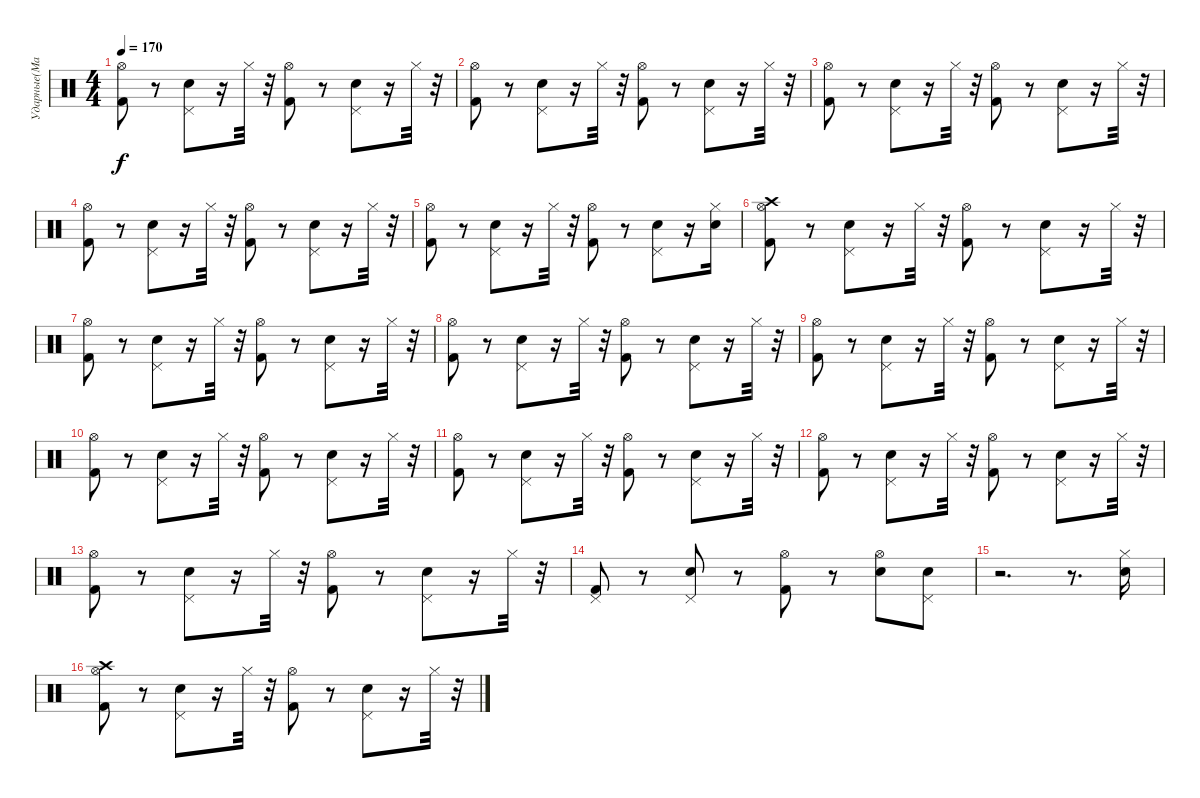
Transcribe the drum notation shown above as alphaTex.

\track ("Ударные(Май)" "Ударные(Ма") {instrument percussion}
\staff {score}
\articulation defaults
\ts (4 4)
\tempo 170
\clef neutral
\ks c
("Hi-Hat (open)" "Kick (hit) 2").8{dy f} r.8 ("Electric Snare (hit)" "Pedal Hi-Hat (hit)").8 r.16 "Hi-Hat (closed)".32 r.32 ("Kick (hit) 2" "Hi-Hat (open)").8 r.8 ("Electric Snare (hit)" "Pedal Hi-Hat (hit)").8 r.16 "Hi-Hat (closed)".32 r.32 |
("Hi-Hat (open)" "Kick (hit) 2").8 r.8 ("Electric Snare (hit)" "Pedal Hi-Hat (hit)").8 r.16 "Hi-Hat (closed)".32 r.32 ("Kick (hit) 2" "Hi-Hat (open)").8 r.8 ("Electric Snare (hit)" "Pedal Hi-Hat (hit)").8 r.16 "Hi-Hat (closed)".32 r.32 |
("Hi-Hat (open)" "Kick (hit) 2").8 r.8 ("Electric Snare (hit)" "Pedal Hi-Hat (hit)").8 r.16 "Hi-Hat (closed)".32 r.32 ("Kick (hit) 2" "Hi-Hat (open)").8 r.8 ("Electric Snare (hit)" "Pedal Hi-Hat (hit)").8 r.16 "Hi-Hat (closed)".32 r.32 |
("Hi-Hat (open)" "Kick (hit) 2").8 r.8 ("Electric Snare (hit)" "Pedal Hi-Hat (hit)").8 r.16 "Hi-Hat (closed)".32 r.32 ("Kick (hit) 2" "Hi-Hat (open)").8 r.8 ("Electric Snare (hit)" "Pedal Hi-Hat (hit)").8 r.16 "Hi-Hat (closed)".32 r.32 |
("Hi-Hat (open)" "Kick (hit) 2").8 r.8 ("Electric Snare (hit)" "Pedal Hi-Hat (hit)").8 r.16 "Hi-Hat (closed)".32 r.32 ("Kick (hit) 2" "Hi-Hat (open)").8 r.8 ("Electric Snare (hit)" "Pedal Hi-Hat (hit)").8 r.16 ("Hi-Hat (closed)" "Electric Snare (hit)").16 |
("Crash high (hit)" "Hi-Hat (open)" "Kick (hit) 2").8 r.8 ("Electric Snare (hit)" "Pedal Hi-Hat (hit)").8 r.16 "Hi-Hat (closed)".32 r.32 ("Kick (hit) 2" "Hi-Hat (open)").8 r.8 ("Electric Snare (hit)" "Pedal Hi-Hat (hit)").8 r.16 "Hi-Hat (closed)".32 r.32 |
("Hi-Hat (open)" "Kick (hit) 2").8 r.8 ("Electric Snare (hit)" "Pedal Hi-Hat (hit)").8 r.16 "Hi-Hat (closed)".32 r.32 ("Kick (hit) 2" "Hi-Hat (open)").8 r.8 ("Electric Snare (hit)" "Pedal Hi-Hat (hit)").8 r.16 "Hi-Hat (closed)".32 r.32 |
("Hi-Hat (open)" "Kick (hit) 2").8 r.8 ("Electric Snare (hit)" "Pedal Hi-Hat (hit)").8 r.16 "Hi-Hat (closed)".32 r.32 ("Kick (hit) 2" "Hi-Hat (open)").8 r.8 ("Electric Snare (hit)" "Pedal Hi-Hat (hit)").8 r.16 "Hi-Hat (closed)".32 r.32 |
("Hi-Hat (open)" "Kick (hit) 2").8 r.8 ("Electric Snare (hit)" "Pedal Hi-Hat (hit)").8 r.16 "Hi-Hat (closed)".32 r.32 ("Kick (hit) 2" "Hi-Hat (open)").8 r.8 ("Electric Snare (hit)" "Pedal Hi-Hat (hit)").8 r.16 "Hi-Hat (closed)".32 r.32 |
("Hi-Hat (open)" "Kick (hit) 2").8 r.8 ("Electric Snare (hit)" "Pedal Hi-Hat (hit)").8 r.16 "Hi-Hat (closed)".32 r.32 ("Kick (hit) 2" "Hi-Hat (open)").8 r.8 ("Electric Snare (hit)" "Pedal Hi-Hat (hit)").8 r.16 "Hi-Hat (closed)".32 r.32 |
("Hi-Hat (open)" "Kick (hit) 2").8 r.8 ("Electric Snare (hit)" "Pedal Hi-Hat (hit)").8 r.16 "Hi-Hat (closed)".32 r.32 ("Kick (hit) 2" "Hi-Hat (open)").8 r.8 ("Electric Snare (hit)" "Pedal Hi-Hat (hit)").8 r.16 "Hi-Hat (closed)".32 r.32 |
("Hi-Hat (open)" "Kick (hit) 2").8 r.8 ("Electric Snare (hit)" "Pedal Hi-Hat (hit)").8 r.16 "Hi-Hat (closed)".32 r.32 ("Kick (hit) 2" "Hi-Hat (open)").8 r.8 ("Electric Snare (hit)" "Pedal Hi-Hat (hit)").8 r.16 "Hi-Hat (closed)".32 r.32 |
("Hi-Hat (open)" "Kick (hit) 2").8 r.8 ("Electric Snare (hit)" "Pedal Hi-Hat (hit)").8 r.16 "Hi-Hat (closed)".32 r.32 ("Kick (hit) 2" "Hi-Hat (open)").8 r.8 ("Electric Snare (hit)" "Pedal Hi-Hat (hit)").8 r.16 "Hi-Hat (closed)".32 r.32 |
("Pedal Hi-Hat (hit)" "Kick (hit) 2").8 r.8 ("Electric Snare (hit)" "Pedal Hi-Hat (hit)").8 r.8 ("Kick (hit) 2" "Hi-Hat (open)").8 r.8 ("Electric Snare (hit)" "Hi-Hat (open)").8 ("Pedal Hi-Hat (hit)" "Electric Snare (hit)").8 |
r.2{d} r.8{d} ("Electric Snare (hit)" "Hi-Hat (closed)").16 |
("Crash high (hit)" "Hi-Hat (open)" "Kick (hit) 2").8 r.8 ("Electric Snare (hit)" "Pedal Hi-Hat (hit)").8 r.16 "Hi-Hat (closed)".32 r.32 ("Kick (hit) 2" "Hi-Hat (open)").8 r.8 ("Electric Snare (hit)" "Pedal Hi-Hat (hit)").8 r.16 "Hi-Hat (closed)".32 r.32
